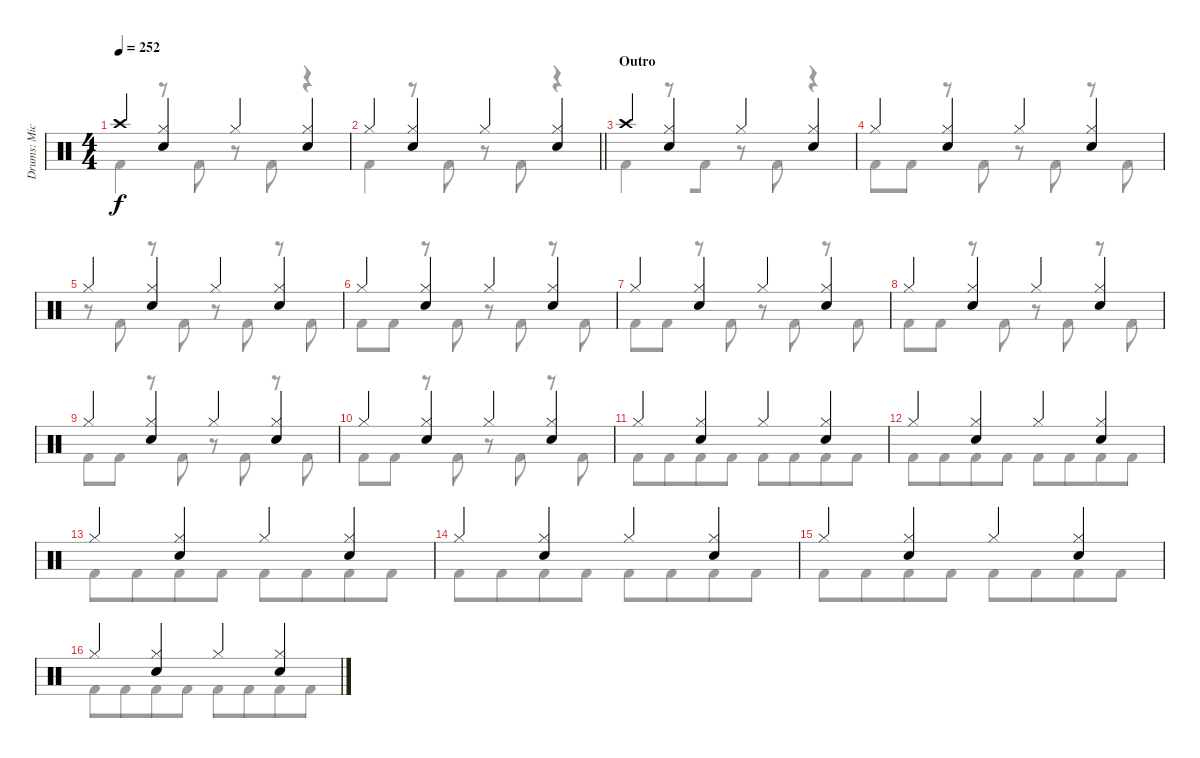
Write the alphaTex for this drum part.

\track ("Drums: Mick" "Drums: Mic") {instrument percussion}
\staff {score}
\articulation defaults
\voice
\ts (4 4)
\tempo 252
\clef neutral
\ks c "Crash high (hit)".4{dy f}
("Hi-Hat (closed)" "Snare (hit) 2").4 "Hi-Hat (closed)".4 ("Hi-Hat (closed)" "Snare (hit) 2").4 |
\barLineRight lightlight "Hi-Hat (closed)".4
("Hi-Hat (closed)" "Snare (hit) 2").4 "Hi-Hat (closed)".4 ("Hi-Hat (closed)" "Snare (hit) 2").4 |
\section ("" "Outro")
"Crash high (hit)".4 ("Hi-Hat (closed)" "Snare (hit) 2").4 "Hi-Hat (closed)".4 ("Hi-Hat (closed)" "Snare (hit) 2").4 |
"Hi-Hat (closed)".4 ("Hi-Hat (closed)" "Snare (hit) 2").4 "Hi-Hat (closed)".4 ("Hi-Hat (closed)" "Snare (hit) 2").4 |
"Hi-Hat (closed)".4 ("Hi-Hat (closed)" "Snare (hit) 2").4 "Hi-Hat (closed)".4 ("Hi-Hat (closed)" "Snare (hit) 2").4 |
"Hi-Hat (closed)".4 ("Hi-Hat (closed)" "Snare (hit) 2").4 "Hi-Hat (closed)".4 ("Hi-Hat (closed)" "Snare (hit) 2").4 |
"Hi-Hat (closed)".4 ("Hi-Hat (closed)" "Snare (hit) 2").4 "Hi-Hat (closed)".4 ("Hi-Hat (closed)" "Snare (hit) 2").4 |
"Hi-Hat (closed)".4 ("Hi-Hat (closed)" "Snare (hit) 2").4 "Hi-Hat (closed)".4 ("Hi-Hat (closed)" "Snare (hit) 2").4 |
"Hi-Hat (closed)".4 ("Hi-Hat (closed)" "Snare (hit) 2").4 "Hi-Hat (closed)".4 ("Hi-Hat (closed)" "Snare (hit) 2").4 |
"Hi-Hat (closed)".4 ("Hi-Hat (closed)" "Snare (hit) 2").4 "Hi-Hat (closed)".4 ("Hi-Hat (closed)" "Snare (hit) 2").4 |
"Hi-Hat (closed)".4 ("Hi-Hat (closed)" "Snare (hit) 2").4 "Hi-Hat (closed)".4 ("Hi-Hat (closed)" "Snare (hit) 2").4 |
"Hi-Hat (closed)".4 ("Hi-Hat (closed)" "Snare (hit) 2").4 "Hi-Hat (closed)".4 ("Hi-Hat (closed)" "Snare (hit) 2").4 |
"Hi-Hat (closed)".4 ("Hi-Hat (closed)" "Snare (hit) 2").4 "Hi-Hat (closed)".4 ("Hi-Hat (closed)" "Snare (hit) 2").4 |
"Hi-Hat (closed)".4 ("Hi-Hat (closed)" "Snare (hit) 2").4 "Hi-Hat (closed)".4 ("Hi-Hat (closed)" "Snare (hit) 2").4 |
"Hi-Hat (closed)".4 ("Hi-Hat (closed)" "Snare (hit) 2").4 "Hi-Hat (closed)".4 ("Hi-Hat (closed)" "Snare (hit) 2").4 |
"Hi-Hat (closed)".4 ("Hi-Hat (closed)" "Snare (hit) 2").4 "Hi-Hat (closed)".4 ("Hi-Hat (closed)" "Snare (hit) 2").4
\voice
\clef neutral
\ottava regular
\simile none
\ks c "Kick (hit) 2".4{dy f}
r.8 "Kick (hit) 2".8 r.8 "Kick (hit) 2".8 r.4 |
\barLineRight lightlight "Kick (hit) 2".4
r.8 "Kick (hit) 2".8 r.8 "Kick (hit) 2".8 r.4 |
"Kick (hit) 2".4{beam merge} r.8 "Kick (hit) 2".8 r.8 "Kick (hit) 2".8{beam merge} r.4 |
"Kick (hit) 2".8{beam merge} "Kick (hit) 2".8 r.8 "Kick (hit) 2".8 r.8{beam merge} "Kick (hit) 2".8 r.8 "Kick (hit) 2".8 |
r.8 "Kick (hit) 2".8 r.8 "Kick (hit) 2".8 r.8 "Kick (hit) 2".8 r.8 "Kick (hit) 2".8 |
"Kick (hit) 2".8 "Kick (hit) 2".8 r.8 "Kick (hit) 2".8 r.8 "Kick (hit) 2".8 r.8 "Kick (hit) 2".8 |
"Kick (hit) 2".8 "Kick (hit) 2".8 r.8 "Kick (hit) 2".8 r.8 "Kick (hit) 2".8 r.8 "Kick (hit) 2".8 |
"Kick (hit) 2".8 "Kick (hit) 2".8 r.8 "Kick (hit) 2".8 r.8 "Kick (hit) 2".8 r.8 "Kick (hit) 2".8 |
"Kick (hit) 2".8 "Kick (hit) 2".8 r.8 "Kick (hit) 2".8 r.8 "Kick (hit) 2".8 r.8 "Kick (hit) 2".8 |
"Kick (hit) 2".8 "Kick (hit) 2".8 r.8 "Kick (hit) 2".8 r.8 "Kick (hit) 2".8 r.8 "Kick (hit) 2".8 |
"Kick (hit) 2".8 "Kick (hit) 2".8{beam merge} "Kick (hit) 2".8 "Kick (hit) 2".8 "Kick (hit) 2".8 "Kick (hit) 2".8{beam merge} "Kick (hit) 2".8 "Kick (hit) 2".8 |
"Kick (hit) 2".8 "Kick (hit) 2".8{beam merge} "Kick (hit) 2".8 "Kick (hit) 2".8 "Kick (hit) 2".8 "Kick (hit) 2".8{beam merge} "Kick (hit) 2".8 "Kick (hit) 2".8 |
"Kick (hit) 2".8 "Kick (hit) 2".8{beam merge} "Kick (hit) 2".8 "Kick (hit) 2".8 "Kick (hit) 2".8 "Kick (hit) 2".8{beam merge} "Kick (hit) 2".8 "Kick (hit) 2".8 |
"Kick (hit) 2".8 "Kick (hit) 2".8{beam merge} "Kick (hit) 2".8 "Kick (hit) 2".8 "Kick (hit) 2".8 "Kick (hit) 2".8{beam merge} "Kick (hit) 2".8 "Kick (hit) 2".8 |
"Kick (hit) 2".8 "Kick (hit) 2".8{beam merge} "Kick (hit) 2".8 "Kick (hit) 2".8 "Kick (hit) 2".8 "Kick (hit) 2".8{beam merge} "Kick (hit) 2".8 "Kick (hit) 2".8 |
"Kick (hit) 2".8 "Kick (hit) 2".8{beam merge} "Kick (hit) 2".8 "Kick (hit) 2".8 "Kick (hit) 2".8 "Kick (hit) 2".8{beam merge} "Kick (hit) 2".8 "Kick (hit) 2".8
